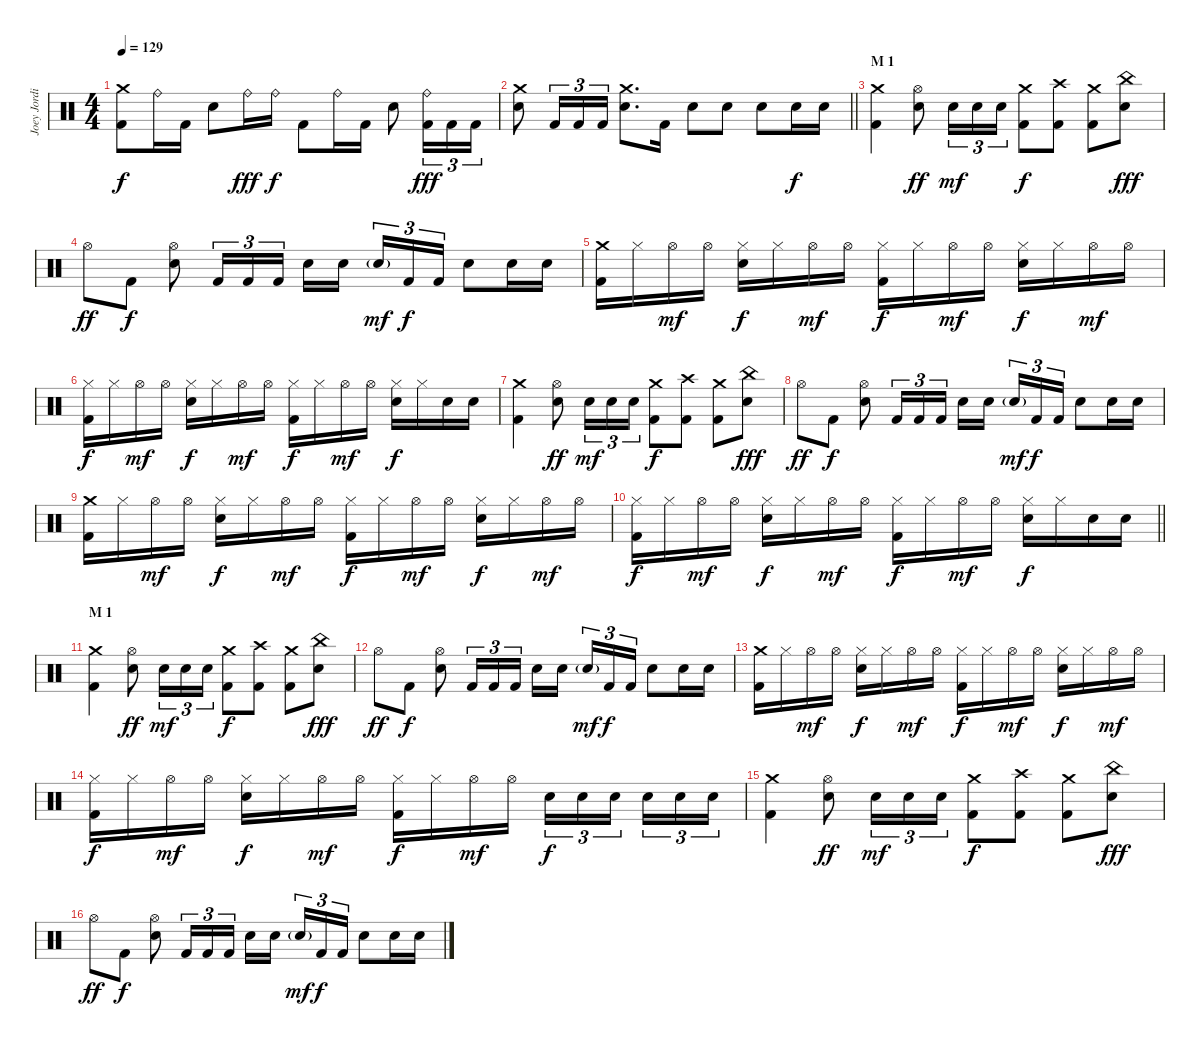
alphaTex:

\track ("Joey Jordison" "Joey Jordi") {instrument percussion}
\staff {score}
\articulation defaults
\ts (4 4)
\tempo 129
\clef neutral
\ks c
("Crash medium (hit)" "Kick (hit) 2").8{dy f} "Ride (bell)".16 "Kick (hit) 2".16 "Electric Snare (hit)".8 "Ride (bell)".16{dy fff} "Ride (bell)".16{dy f} "Kick (hit) 2".8 "Ride (bell)".16 "Kick (hit) 2".16 "Electric Snare (hit)".8 ("Ride (bell)" "Kick (hit) 2").16{tu (3 2) dy fff} "Kick (hit) 2".16{tu (3 2)} "Kick (hit) 2".16{tu (3 2)} |
\barLineRight lightlight
("Crash medium (hit)" "Electric Snare (hit)").8 "Kick (hit) 2".16{tu (3 2)} "Kick (hit) 2".16{tu (3 2)} "Kick (hit) 2".16{tu (3 2)} ("Crash medium (hit)" "Electric Snare (hit)").8{d} "Kick (hit) 2".16 "Electric Snare (hit)".8 "Electric Snare (hit)".8 "Electric Snare (hit)".8 "Electric Snare (hit)".16{dy f} "Electric Snare (hit)".16 |
\section ("" "M 1")
("Crash medium (hit)" "Kick (hit) 2").4 ("Hi-Hat (open)" "Electric Snare (hit)").8{dy ff} "Electric Snare (hit)".16{tu (3 2) dy mf} "Electric Snare (hit)".16{tu (3 2)} "Electric Snare (hit)".16{tu (3 2)} ("Crash medium (hit)" "Kick (hit) 2").8{dy f} ("Crash high (hit)" "Kick (hit) 2").8 ("Crash medium (hit)" "Kick (hit) 2").8 ("China (hit)" "Electric Snare (hit)").8{dy fff} |
"Hi-Hat (open)".8{dy ff} "Kick (hit) 2".8{dy f} ("Hi-Hat (open)" "Electric Snare (hit)").8 "Kick (hit) 2".16{tu (3 2)} "Kick (hit) 2".16{tu (3 2)} "Kick (hit) 2".16{tu (3 2)} "Electric Snare (hit)".16 "Electric Snare (hit)".16{beam splitsecondary} "Electric Snare (hit)"{g}.16{tu (3 2) dy mf} "Kick (hit) 2".16{tu (3 2) dy f} "Kick (hit) 2".16{tu (3 2)} "Electric Snare (hit)".8 "Electric Snare (hit)".16 "Electric Snare (hit)".16 |
("Crash medium (hit)" "Kick (hit) 2").16 "Hi-Hat (closed)".16 "Hi-Hat (open)".16{dy mf} "Hi-Hat (open)".16 ("Hi-Hat (closed)" "Electric Snare (hit)").16{dy f} "Hi-Hat (closed)".16 "Hi-Hat (open)".16{dy mf} "Hi-Hat (open)".16 ("Hi-Hat (closed)" "Kick (hit) 2").16{dy f} "Hi-Hat (closed)".16 "Hi-Hat (open)".16{dy mf} "Hi-Hat (open)".16 ("Hi-Hat (closed)" "Electric Snare (hit)").16{dy f} "Hi-Hat (closed)".16 "Hi-Hat (open)".16{dy mf} "Hi-Hat (open)".16 |
("Hi-Hat (closed)" "Kick (hit) 2").16{dy f} "Hi-Hat (closed)".16 "Hi-Hat (open)".16{dy mf} "Hi-Hat (open)".16 ("Hi-Hat (closed)" "Electric Snare (hit)").16{dy f} "Hi-Hat (closed)".16 "Hi-Hat (open)".16{dy mf} "Hi-Hat (open)".16 ("Hi-Hat (closed)" "Kick (hit) 2").16{dy f} "Hi-Hat (closed)".16 "Hi-Hat (open)".16{dy mf} "Hi-Hat (open)".16 ("Hi-Hat (closed)" "Electric Snare (hit)").16{dy f} "Hi-Hat (closed)".16 "Electric Snare (hit)".16 "Electric Snare (hit)".16 |
("Crash medium (hit)" "Kick (hit) 2").4 ("Hi-Hat (open)" "Electric Snare (hit)").8{dy ff} "Electric Snare (hit)".16{tu (3 2) dy mf} "Electric Snare (hit)".16{tu (3 2)} "Electric Snare (hit)".16{tu (3 2)} ("Crash medium (hit)" "Kick (hit) 2").8{dy f} ("Crash high (hit)" "Kick (hit) 2").8 ("Crash medium (hit)" "Kick (hit) 2").8 ("China (hit)" "Electric Snare (hit)").8{dy fff} |
"Hi-Hat (open)".8{dy ff} "Kick (hit) 2".8{dy f} ("Hi-Hat (open)" "Electric Snare (hit)").8 "Kick (hit) 2".16{tu (3 2)} "Kick (hit) 2".16{tu (3 2)} "Kick (hit) 2".16{tu (3 2)} "Electric Snare (hit)".16 "Electric Snare (hit)".16{beam splitsecondary} "Electric Snare (hit)"{g}.16{tu (3 2) dy mf} "Kick (hit) 2".16{tu (3 2) dy f} "Kick (hit) 2".16{tu (3 2)} "Electric Snare (hit)".8 "Electric Snare (hit)".16 "Electric Snare (hit)".16 |
("Crash medium (hit)" "Kick (hit) 2").16 "Hi-Hat (closed)".16 "Hi-Hat (open)".16{dy mf} "Hi-Hat (open)".16 ("Hi-Hat (closed)" "Electric Snare (hit)").16{dy f} "Hi-Hat (closed)".16 "Hi-Hat (open)".16{dy mf} "Hi-Hat (open)".16 ("Hi-Hat (closed)" "Kick (hit) 2").16{dy f} "Hi-Hat (closed)".16 "Hi-Hat (open)".16{dy mf} "Hi-Hat (open)".16 ("Hi-Hat (closed)" "Electric Snare (hit)").16{dy f} "Hi-Hat (closed)".16 "Hi-Hat (open)".16{dy mf} "Hi-Hat (open)".16 |
\barLineRight lightlight
("Hi-Hat (closed)" "Kick (hit) 2").16{dy f} "Hi-Hat (closed)".16 "Hi-Hat (open)".16{dy mf} "Hi-Hat (open)".16 ("Hi-Hat (closed)" "Electric Snare (hit)").16{dy f} "Hi-Hat (closed)".16 "Hi-Hat (open)".16{dy mf} "Hi-Hat (open)".16 ("Hi-Hat (closed)" "Kick (hit) 2").16{dy f} "Hi-Hat (closed)".16 "Hi-Hat (open)".16{dy mf} "Hi-Hat (open)".16 ("Hi-Hat (closed)" "Electric Snare (hit)").16{dy f} "Hi-Hat (closed)".16 "Electric Snare (hit)".16 "Electric Snare (hit)".16 |
\section ("" "M 1")
("Crash medium (hit)" "Kick (hit) 2").4 ("Hi-Hat (open)" "Electric Snare (hit)").8{dy ff} "Electric Snare (hit)".16{tu (3 2) dy mf} "Electric Snare (hit)".16{tu (3 2)} "Electric Snare (hit)".16{tu (3 2)} ("Crash medium (hit)" "Kick (hit) 2").8{dy f} ("Crash high (hit)" "Kick (hit) 2").8 ("Crash medium (hit)" "Kick (hit) 2").8 ("China (hit)" "Electric Snare (hit)").8{dy fff} |
"Hi-Hat (open)".8{dy ff} "Kick (hit) 2".8{dy f} ("Hi-Hat (open)" "Electric Snare (hit)").8 "Kick (hit) 2".16{tu (3 2)} "Kick (hit) 2".16{tu (3 2)} "Kick (hit) 2".16{tu (3 2)} "Electric Snare (hit)".16 "Electric Snare (hit)".16{beam splitsecondary} "Electric Snare (hit)"{g}.16{tu (3 2) dy mf} "Kick (hit) 2".16{tu (3 2) dy f} "Kick (hit) 2".16{tu (3 2)} "Electric Snare (hit)".8 "Electric Snare (hit)".16 "Electric Snare (hit)".16 |
("Crash medium (hit)" "Kick (hit) 2").16 "Hi-Hat (closed)".16 "Hi-Hat (open)".16{dy mf} "Hi-Hat (open)".16 ("Hi-Hat (closed)" "Electric Snare (hit)").16{dy f} "Hi-Hat (closed)".16 "Hi-Hat (open)".16{dy mf} "Hi-Hat (open)".16 ("Hi-Hat (closed)" "Kick (hit) 2").16{dy f} "Hi-Hat (closed)".16 "Hi-Hat (open)".16{dy mf} "Hi-Hat (open)".16 ("Hi-Hat (closed)" "Electric Snare (hit)").16{dy f} "Hi-Hat (closed)".16 "Hi-Hat (open)".16{dy mf} "Hi-Hat (open)".16 |
("Hi-Hat (closed)" "Kick (hit) 2").16{dy f} "Hi-Hat (closed)".16 "Hi-Hat (open)".16{dy mf} "Hi-Hat (open)".16 ("Hi-Hat (closed)" "Electric Snare (hit)").16{dy f} "Hi-Hat (closed)".16 "Hi-Hat (open)".16{dy mf} "Hi-Hat (open)".16 ("Hi-Hat (closed)" "Kick (hit) 2").16{dy f} "Hi-Hat (closed)".16 "Hi-Hat (open)".16{dy mf} "Hi-Hat (open)".16 "Electric Snare (hit)".16{tu (3 2) dy f} "Electric Snare (hit)".16{tu (3 2)} "Electric Snare (hit)".16{tu (3 2) beam splitsecondary} "Electric Snare (hit)".16{tu (3 2)} "Electric Snare (hit)".16{tu (3 2)} "Electric Snare (hit)".16{tu (3 2)} |
("Crash medium (hit)" "Kick (hit) 2").4 ("Hi-Hat (open)" "Electric Snare (hit)").8{dy ff} "Electric Snare (hit)".16{tu (3 2) dy mf} "Electric Snare (hit)".16{tu (3 2)} "Electric Snare (hit)".16{tu (3 2)} ("Crash medium (hit)" "Kick (hit) 2").8{dy f} ("Crash high (hit)" "Kick (hit) 2").8 ("Crash medium (hit)" "Kick (hit) 2").8 ("China (hit)" "Electric Snare (hit)").8{dy fff} |
"Hi-Hat (open)".8{dy ff} "Kick (hit) 2".8{dy f} ("Hi-Hat (open)" "Electric Snare (hit)").8 "Kick (hit) 2".16{tu (3 2)} "Kick (hit) 2".16{tu (3 2)} "Kick (hit) 2".16{tu (3 2)} "Electric Snare (hit)".16 "Electric Snare (hit)".16{beam splitsecondary} "Electric Snare (hit)"{g}.16{tu (3 2) dy mf} "Kick (hit) 2".16{tu (3 2) dy f} "Kick (hit) 2".16{tu (3 2)} "Electric Snare (hit)".8 "Electric Snare (hit)".16 "Electric Snare (hit)".16
